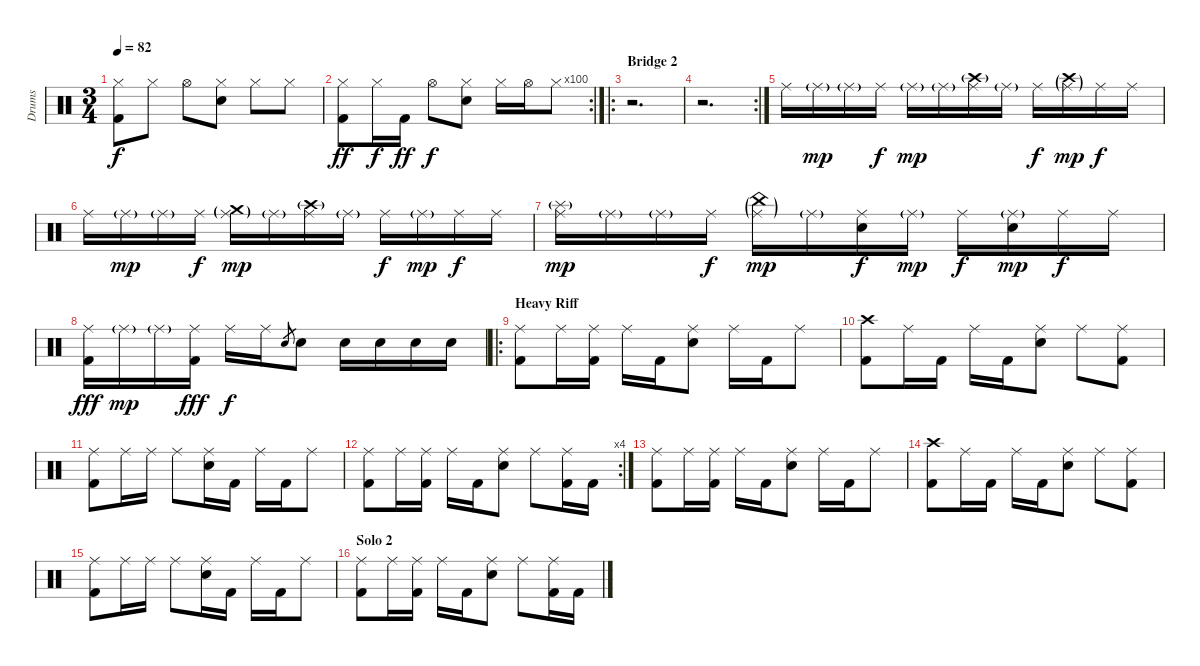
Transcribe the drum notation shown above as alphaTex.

\track ("Drums" "Drums") {instrument percussion}
\staff {score}
\articulation defaults
\ts (3 4)
\tempo 82
\clef neutral
\ks c
("Hi-Hat (closed)" "Kick (hit) 2").8{dy f} "Hi-Hat (closed)".8 "Hi-Hat (open)".8 ("Hi-Hat (closed)" "Electric Snare (hit)").8 "Hi-Hat (closed)".8 "Hi-Hat (closed)".8 |
\rc 100
("Hi-Hat (closed)" "Kick (hit) 2").8{dy ff} "Hi-Hat (closed)".16{dy f} "Kick (hit) 2".16{dy ff} "Hi-Hat (open)".8{dy f} ("Hi-Hat (closed)" "Electric Snare (hit)").8 "Hi-Hat (closed)".16 "Hi-Hat (open)".16 "Hi-Hat (closed)".8 |
\ro
\section ("" "Bridge 2")
r.2{d} |
\rc 2
r.2{d} |
"Ride (middle)".16 "Ride (middle)"{g}.16{dy mp} "Ride (middle)"{g}.16 "Ride (middle)".16{dy f} "Ride (middle)"{g}.16{dy mp} "Ride (middle)"{g}.16 ("Ride (middle)" "Crash high (hit)"{g}).16 "Ride (middle)"{g}.16 "Ride (middle)".16{dy f} ("Ride (middle)"{g} "Crash high (hit)"{g}).16{dy mp} "Ride (middle)".16{dy f} "Ride (middle)".16 |
"Ride (middle)".16 "Ride (middle)"{g}.16{dy mp} "Ride (middle)"{g}.16 "Ride (middle)".16{dy f} ("Ride (middle)"{g} "Crash medium (hit)"{g}).16{dy mp} "Ride (middle)"{g}.16 ("Ride (middle)" "Crash high (hit)"{g}).16 "Ride (middle)"{g}.16 "Ride (middle)".16{dy f} "Ride (middle)"{g}.16{dy mp} "Ride (middle)".16{dy f} "Ride (middle)".16 |
("Ride (middle)" "Splash (hit)"{g}).16{dy mp} "Ride (middle)"{g}.16 "Ride (middle)"{g}.16 "Ride (middle)".16{dy f} ("Ride (middle)"{g} "China (hit)"{g}).16{dy mp} "Ride (middle)"{g}.16 ("Ride (middle)" "Electric Snare (hit)").16{dy f} "Ride (middle)"{g}.16{dy mp} "Ride (middle)".16{dy f} ("Ride (middle)"{g} "Electric Snare (hit)").16{dy mp} "Ride (middle)".16{dy f} "Ride (middle)".16 |
("Ride (middle)" "Kick (hit) 2").16{dy fff} "Ride (middle)"{g}.16{dy mp} "Ride (middle)"{g}.16 ("Ride (middle)" "Kick (hit) 2").16{dy fff} "Ride (middle)".16{dy f} "Ride (middle)".16 "Electric Snare (hit)".8{gr} "Electric Snare (hit)".8 "Electric Snare (hit)".16 "Electric Snare (hit)".16 "Electric Snare (hit)".16 "Electric Snare (hit)".16 |
\ro
\section ("" "Heavy Riff")
("Ride (middle)" "Kick (hit) 2").8 "Ride (middle)".16 ("Ride (middle)" "Kick (hit) 2").16 "Ride (middle)".16 "Kick (hit) 2".16 ("Ride (middle)" "Electric Snare (hit)").8 "Ride (middle)".16 "Kick (hit) 2".16 "Ride (middle)".8 |
("Crash high (hit)" "Kick (hit) 2").8 "Ride (middle)".16 "Kick (hit) 2".16 "Ride (middle)".16 "Kick (hit) 2".16 ("Ride (middle)" "Electric Snare (hit)").8 "Ride (middle)".8 ("Ride (middle)" "Kick (hit) 2").8 |
("Ride (middle)" "Kick (hit) 2").8 "Ride (middle)".16 "Ride (middle)".16 "Ride (middle)".8 ("Ride (middle)" "Electric Snare (hit)").16 "Kick (hit) 2".16 "Ride (middle)".16 "Kick (hit) 2".16 "Ride (middle)".8 |
\rc 4
("Ride (middle)" "Kick (hit) 2").8 "Ride (middle)".16 ("Ride (middle)" "Kick (hit) 2").16 "Ride (middle)".16 "Kick (hit) 2".16 ("Ride (middle)" "Electric Snare (hit)").8 "Ride (middle)".8 ("Ride (middle)" "Kick (hit) 2").16 "Kick (hit) 2".16 |
("Ride (middle)" "Kick (hit) 2").8 "Ride (middle)".16 ("Ride (middle)" "Kick (hit) 2").16 "Ride (middle)".16 "Kick (hit) 2".16 ("Ride (middle)" "Electric Snare (hit)").8 "Ride (middle)".16 "Kick (hit) 2".16 "Ride (middle)".8 |
("Crash high (hit)" "Kick (hit) 2").8 "Ride (middle)".16 "Kick (hit) 2".16 "Ride (middle)".16 "Kick (hit) 2".16 ("Ride (middle)" "Electric Snare (hit)").8 "Ride (middle)".8 ("Ride (middle)" "Kick (hit) 2").8 |
("Ride (middle)" "Kick (hit) 2").8 "Ride (middle)".16 "Ride (middle)".16 "Ride (middle)".8 ("Ride (middle)" "Electric Snare (hit)").16 "Kick (hit) 2".16 "Ride (middle)".16 "Kick (hit) 2".16 "Ride (middle)".8 |
\section ("" "Solo 2")
("Ride (middle)" "Kick (hit) 2").8 "Ride (middle)".16 ("Ride (middle)" "Kick (hit) 2").16 "Ride (middle)".16 "Kick (hit) 2".16 ("Ride (middle)" "Electric Snare (hit)").8 "Ride (middle)".8 ("Ride (middle)" "Kick (hit) 2").16 "Kick (hit) 2".16
